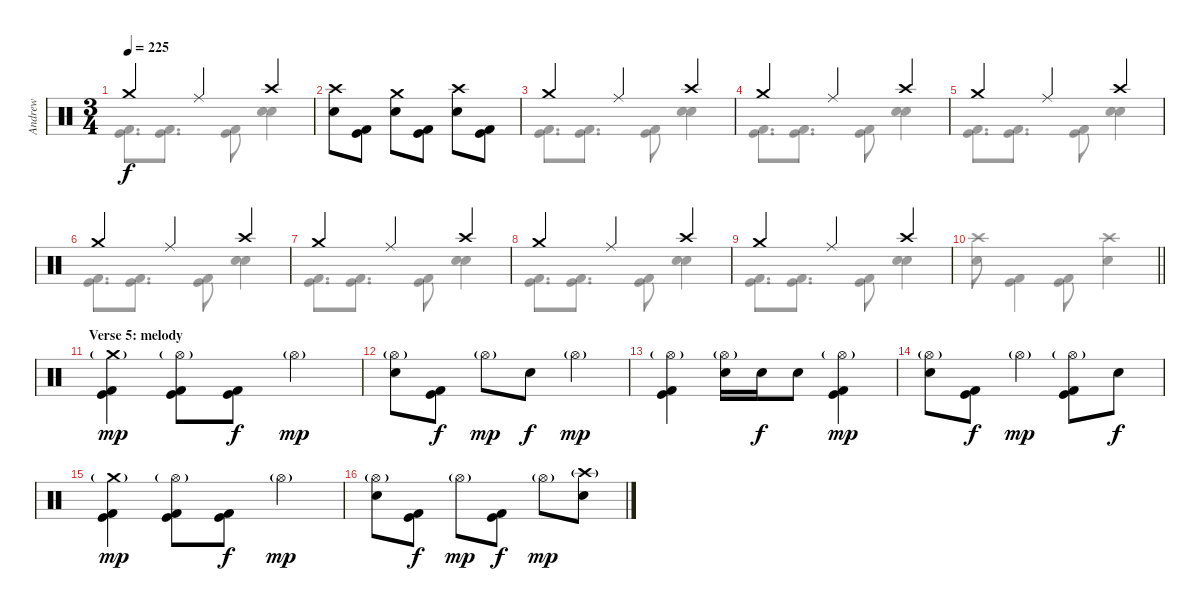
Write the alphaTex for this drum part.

\track ("Andrew" "Andrew") {instrument percussion}
\staff {score}
\articulation defaults
\voice
\ts (3 4)
\tempo 225
\clef neutral
\ks c "Crash medium (hit)".4{dy f} "Ride (middle)".4 "Crash high (hit)".4
|
("Crash high (hit)" "Snare (hit) 2").8 ("Kick (hit)" "Kick (hit) 2").8 ("Crash medium (hit)" "Snare (hit) 2").8 ("Kick (hit)" "Kick (hit) 2").8 ("Crash high (hit)" "Snare (hit) 2").8 ("Kick (hit)" "Kick (hit) 2").8 |
"Crash medium (hit)".4 "Ride (middle)".4 "Crash high (hit)".4 |
"Crash medium (hit)".4 "Ride (middle)".4 "Crash high (hit)".4 |
"Crash medium (hit)".4 "Ride (middle)".4 "Crash high (hit)".4 |
"Crash medium (hit)".4 "Ride (middle)".4 "Crash high (hit)".4 |
"Crash medium (hit)".4 "Ride (middle)".4 "Crash high (hit)".4 |
"Crash medium (hit)".4 "Ride (middle)".4 "Crash high (hit)".4 |
"Crash medium (hit)".4 "Ride (middle)".4 "Crash high (hit)".4 |
\barLineRight lightlight
|
\section ("" "Verse 5: melody")
("Crash medium (hit)"{g} "Kick (hit)" "Kick (hit) 2").4{dy mp} ("Hi-Hat (open)"{g} "Kick (hit)" "Kick (hit) 2").8 ("Kick (hit)" "Kick (hit) 2").8{dy f} "Hi-Hat (open)"{g}.4{dy mp} |
("Hi-Hat (open)"{g} "Snare (hit) 2").8 ("Kick (hit)" "Kick (hit) 2").8{dy f} "Hi-Hat (open)"{g}.8{dy mp} "Snare (hit) 2".8{dy f} "Hi-Hat (open)"{g}.4{dy mp} |
("Hi-Hat (open)"{g} "Kick (hit)" "Kick (hit) 2").4 ("Hi-Hat (open)"{g} "Snare (hit) 2").16 "Snare (hit) 2".16{dy f} "Snare (hit) 2".8 ("Hi-Hat (open)"{g} "Kick (hit) 2" "Kick (hit)").4{dy mp} |
("Hi-Hat (open)"{g} "Snare (hit) 2").8 ("Kick (hit)" "Kick (hit) 2").8{dy f} "Hi-Hat (open)"{g}.4{dy mp} ("Hi-Hat (open)"{g} "Kick (hit)" "Kick (hit) 2").8 "Snare (hit) 2".8{dy f} |
("Crash medium (hit)"{g} "Kick (hit)" "Kick (hit) 2").4{dy mp} ("Hi-Hat (open)"{g} "Kick (hit)" "Kick (hit) 2").8 ("Kick (hit)" "Kick (hit) 2").8{dy f} "Hi-Hat (open)"{g}.4{dy mp} |
("Hi-Hat (open)"{g} "Snare (hit) 2").8 ("Kick (hit)" "Kick (hit) 2").8{dy f} "Hi-Hat (open)"{g}.8{dy mp} ("Kick (hit)" "Kick (hit) 2").8{dy f} "Hi-Hat (open)"{g}.8{dy mp} ("Crash high (hit)"{g} "Snare (hit) 2").8
\voice
\clef neutral
\ottava regular
\simile none
\ks c
("Kick (hit)" "Kick (hit) 2").8{d dy f} ("Kick (hit)" "Kick (hit) 2").8{d} ("Kick (hit)" "Kick (hit) 2").8 ("Snare (hit) 2" "Snare (hit) 2").4 |
|
("Kick (hit)" "Kick (hit) 2").8{d} ("Kick (hit)" "Kick (hit) 2").8{d} ("Kick (hit)" "Kick (hit) 2").8 ("Snare (hit) 2" "Snare (hit) 2").4 |
("Kick (hit)" "Kick (hit) 2").8{d} ("Kick (hit)" "Kick (hit) 2").8{d} ("Kick (hit)" "Kick (hit) 2").8 ("Snare (hit) 2" "Snare (hit) 2").4 |
("Kick (hit)" "Kick (hit) 2").8{d} ("Kick (hit)" "Kick (hit) 2").8{d} ("Kick (hit)" "Kick (hit) 2").8 ("Snare (hit) 2" "Snare (hit) 2").4 |
("Kick (hit)" "Kick (hit) 2").8{d} ("Kick (hit)" "Kick (hit) 2").8{d} ("Kick (hit)" "Kick (hit) 2").8 ("Snare (hit) 2" "Snare (hit) 2").4 |
("Kick (hit)" "Kick (hit) 2").8{d} ("Kick (hit)" "Kick (hit) 2").8{d} ("Kick (hit)" "Kick (hit) 2").8 ("Snare (hit) 2" "Snare (hit) 2").4 |
("Kick (hit)" "Kick (hit) 2").8{d} ("Kick (hit)" "Kick (hit) 2").8{d} ("Kick (hit)" "Kick (hit) 2").8 ("Snare (hit) 2" "Snare (hit) 2").4 |
("Kick (hit)" "Kick (hit) 2").8{d} ("Kick (hit)" "Kick (hit) 2").8{d} ("Kick (hit)" "Kick (hit) 2").8 ("Snare (hit) 2" "Snare (hit) 2").4 |
\barLineRight lightlight
("Crash high (hit)" "Snare (hit) 2").8 ("Kick (hit)" "Kick (hit) 2").4 ("Kick (hit)" "Kick (hit) 2").8 ("Crash high (hit)" "Snare (hit) 2").4 |
|
|
|
|
|
